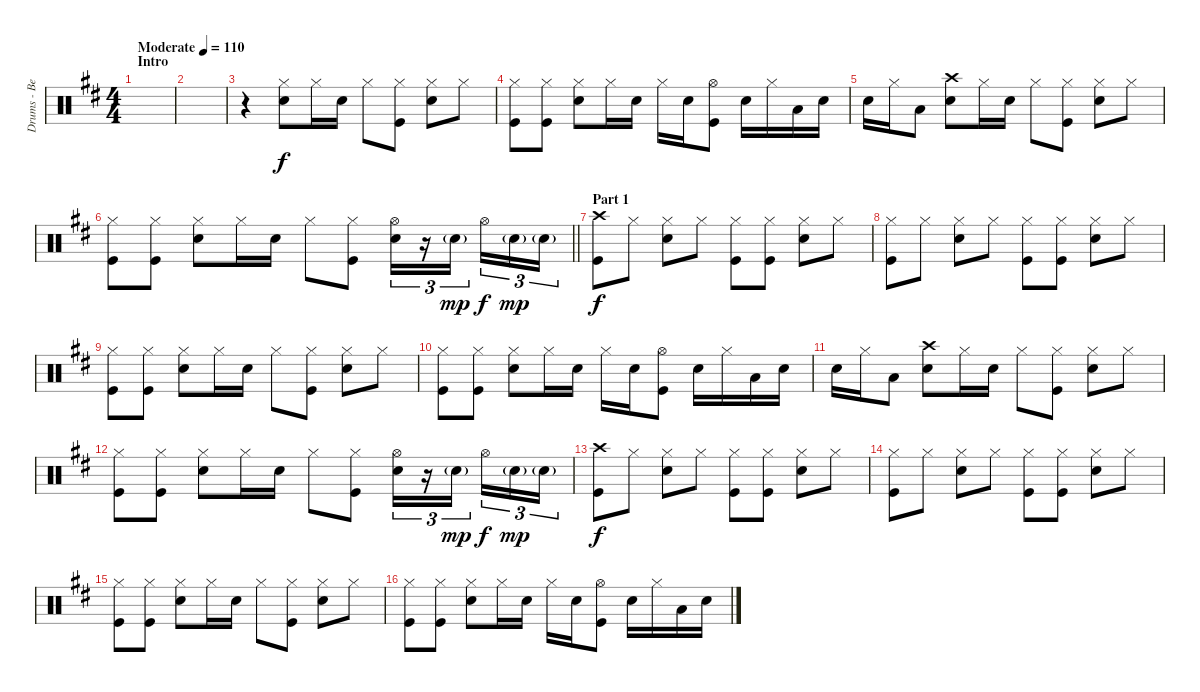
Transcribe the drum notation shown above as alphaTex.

\track ("Drums - Ben Johnston" "Drums - Be") {instrument percussion}
\staff {score}
\articulation defaults
\ts (4 4)
\section ("" "Intro")
\tempo (110 "Moderate")
\clef neutral
\ks d
|
|
r.4 ("Hi-Hat (closed)" "Snare (hit) 2").8 "Hi-Hat (closed)".16 "Snare (hit) 2".16 "Hi-Hat (closed)".8 ("Hi-Hat (closed)" "Kick (hit)").8 ("Hi-Hat (closed)" "Snare (hit) 2").8 "Hi-Hat (closed)".8 |
("Hi-Hat (closed)" "Kick (hit)").8 ("Hi-Hat (closed)" "Kick (hit)").8 ("Hi-Hat (closed)" "Snare (hit) 2").8 "Hi-Hat (closed)".16 "Snare (hit) 2".16 "Hi-Hat (closed)".16 "Snare (hit) 2".16 ("Hi-Hat (open)" "Kick (hit)").8 "Snare (hit) 2".16 "Hi-Hat (closed)".16 "Low Tom (hit)".16 "Snare (hit) 2".16 |
"Snare (hit) 2".16 "Hi-Hat (closed)".16 "Low Tom (hit)".8 ("Crash high (hit)" "Snare (hit) 2").8 "Hi-Hat (closed)".16 "Snare (hit) 2".16 "Hi-Hat (closed)".8 ("Hi-Hat (closed)" "Kick (hit)").8 ("Hi-Hat (closed)" "Snare (hit) 2").8 "Hi-Hat (closed)".8 |
\barLineRight lightlight
("Hi-Hat (closed)" "Kick (hit)").8 ("Hi-Hat (closed)" "Kick (hit)").8 ("Hi-Hat (closed)" "Snare (hit) 2").8 "Hi-Hat (closed)".16 "Snare (hit) 2".16 "Hi-Hat (closed)".8 ("Hi-Hat (closed)" "Kick (hit)").8 ("Hi-Hat (open)" "Snare (hit) 2").16{tu (3 2)} r.16{tu (3 2)} "Snare (hit) 2"{g}.16{tu (3 2) dy mp beam splitsecondary} "Hi-Hat (open)".16{tu (3 2) dy f} "Snare (hit) 2"{g}.16{tu (3 2) dy mp} "Snare (hit) 2"{g}.16{tu (3 2)} |
\section ("" "Part 1")
("Crash high (hit)" "Kick (hit)").8{dy f} "Hi-Hat (closed)".8 ("Hi-Hat (closed)" "Snare (hit) 2").8 "Hi-Hat (closed)".8 ("Hi-Hat (closed)" "Kick (hit)").8 ("Hi-Hat (closed)" "Kick (hit)").8 ("Hi-Hat (closed)" "Snare (hit) 2").8 "Hi-Hat (closed)".8 |
("Hi-Hat (closed)" "Kick (hit)").8 "Hi-Hat (closed)".8 ("Hi-Hat (closed)" "Snare (hit) 2").8 "Hi-Hat (closed)".8 ("Hi-Hat (closed)" "Kick (hit)").8 ("Hi-Hat (closed)" "Kick (hit)").8 ("Hi-Hat (closed)" "Snare (hit) 2").8 "Hi-Hat (closed)".8 |
("Hi-Hat (closed)" "Kick (hit)").8 ("Hi-Hat (closed)" "Kick (hit)").8 ("Hi-Hat (closed)" "Snare (hit) 2").8 "Hi-Hat (closed)".16 "Snare (hit) 2".16 "Hi-Hat (closed)".8 ("Hi-Hat (closed)" "Kick (hit)").8 ("Hi-Hat (closed)" "Snare (hit) 2").8 "Hi-Hat (closed)".8 |
("Hi-Hat (closed)" "Kick (hit)").8 ("Hi-Hat (closed)" "Kick (hit)").8 ("Hi-Hat (closed)" "Snare (hit) 2").8 "Hi-Hat (closed)".16 "Snare (hit) 2".16 "Hi-Hat (closed)".16 "Snare (hit) 2".16 ("Hi-Hat (open)" "Kick (hit)").8 "Snare (hit) 2".16 "Hi-Hat (closed)".16 "Low Tom (hit)".16 "Snare (hit) 2".16 |
"Snare (hit) 2".16 "Hi-Hat (closed)".16 "Low Tom (hit)".8 ("Crash high (hit)" "Snare (hit) 2").8 "Hi-Hat (closed)".16 "Snare (hit) 2".16 "Hi-Hat (closed)".8 ("Hi-Hat (closed)" "Kick (hit)").8 ("Hi-Hat (closed)" "Snare (hit) 2").8 "Hi-Hat (closed)".8 |
("Hi-Hat (closed)" "Kick (hit)").8 ("Hi-Hat (closed)" "Kick (hit)").8 ("Hi-Hat (closed)" "Snare (hit) 2").8 "Hi-Hat (closed)".16 "Snare (hit) 2".16 "Hi-Hat (closed)".8 ("Hi-Hat (closed)" "Kick (hit)").8 ("Hi-Hat (open)" "Snare (hit) 2").16{tu (3 2)} r.16{tu (3 2)} "Snare (hit) 2"{g}.16{tu (3 2) dy mp beam splitsecondary} "Hi-Hat (open)".16{tu (3 2) dy f} "Snare (hit) 2"{g}.16{tu (3 2) dy mp} "Snare (hit) 2"{g}.16{tu (3 2)} |
("Crash high (hit)" "Kick (hit)").8{dy f} "Hi-Hat (closed)".8 ("Hi-Hat (closed)" "Snare (hit) 2").8 "Hi-Hat (closed)".8 ("Hi-Hat (closed)" "Kick (hit)").8 ("Hi-Hat (closed)" "Kick (hit)").8 ("Hi-Hat (closed)" "Snare (hit) 2").8 "Hi-Hat (closed)".8 |
("Hi-Hat (closed)" "Kick (hit)").8 "Hi-Hat (closed)".8 ("Hi-Hat (closed)" "Snare (hit) 2").8 "Hi-Hat (closed)".8 ("Hi-Hat (closed)" "Kick (hit)").8 ("Hi-Hat (closed)" "Kick (hit)").8 ("Hi-Hat (closed)" "Snare (hit) 2").8 "Hi-Hat (closed)".8 |
("Hi-Hat (closed)" "Kick (hit)").8 ("Hi-Hat (closed)" "Kick (hit)").8 ("Hi-Hat (closed)" "Snare (hit) 2").8 "Hi-Hat (closed)".16 "Snare (hit) 2".16 "Hi-Hat (closed)".8 ("Hi-Hat (closed)" "Kick (hit)").8 ("Hi-Hat (closed)" "Snare (hit) 2").8 "Hi-Hat (closed)".8 |
("Hi-Hat (closed)" "Kick (hit)").8 ("Hi-Hat (closed)" "Kick (hit)").8 ("Hi-Hat (closed)" "Snare (hit) 2").8 "Hi-Hat (closed)".16 "Snare (hit) 2".16 "Hi-Hat (closed)".16 "Snare (hit) 2".16 ("Hi-Hat (open)" "Kick (hit)").8 "Snare (hit) 2".16 "Hi-Hat (closed)".16 "Low Tom (hit)".16 "Snare (hit) 2".16
